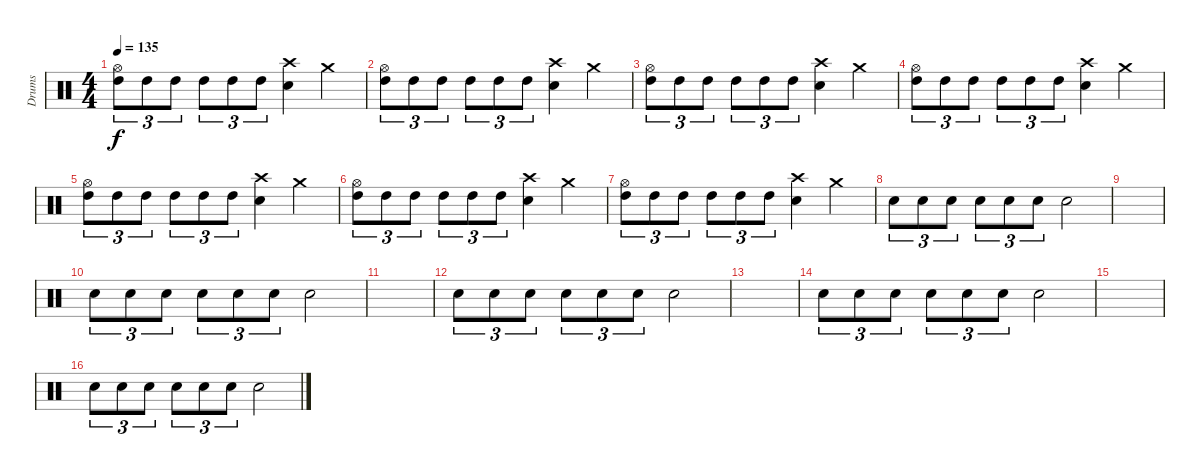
\track ("Drums" "Drums") {instrument percussion}
\staff {score}
\articulation defaults
\ts (4 4)
\tempo 135
\clef neutral
\ks c
("High Tom (hit)" "Hi-Hat (open)").8{tu (3 2) dy f} "High Tom (hit)".8{tu (3 2)} "High Tom (hit)".8{tu (3 2)} "High Tom (hit)".8{tu (3 2)} "High Tom (hit)".8{tu (3 2)} "High Tom (hit)".8{tu (3 2)} ("Snare (hit) 2" "Crash high (hit)").4 "Crash medium (hit)".4 |
("High Tom (hit)" "Hi-Hat (open)").8{tu (3 2)} "High Tom (hit)".8{tu (3 2)} "High Tom (hit)".8{tu (3 2)} "High Tom (hit)".8{tu (3 2)} "High Tom (hit)".8{tu (3 2)} "High Tom (hit)".8{tu (3 2)} ("Snare (hit) 2" "Crash high (hit)").4 "Crash medium (hit)".4 |
("High Tom (hit)" "Hi-Hat (open)").8{tu (3 2)} "High Tom (hit)".8{tu (3 2)} "High Tom (hit)".8{tu (3 2)} "High Tom (hit)".8{tu (3 2)} "High Tom (hit)".8{tu (3 2)} "High Tom (hit)".8{tu (3 2)} ("Snare (hit) 2" "Crash high (hit)").4 "Crash medium (hit)".4 |
("High Tom (hit)" "Hi-Hat (open)").8{tu (3 2)} "High Tom (hit)".8{tu (3 2)} "High Tom (hit)".8{tu (3 2)} "High Tom (hit)".8{tu (3 2)} "High Tom (hit)".8{tu (3 2)} "High Tom (hit)".8{tu (3 2)} ("Snare (hit) 2" "Crash high (hit)").4 "Crash medium (hit)".4 |
("High Tom (hit)" "Hi-Hat (open)").8{tu (3 2)} "High Tom (hit)".8{tu (3 2)} "High Tom (hit)".8{tu (3 2)} "High Tom (hit)".8{tu (3 2)} "High Tom (hit)".8{tu (3 2)} "High Tom (hit)".8{tu (3 2)} ("Snare (hit) 2" "Crash high (hit)").4 "Crash medium (hit)".4 |
("High Tom (hit)" "Hi-Hat (open)").8{tu (3 2)} "High Tom (hit)".8{tu (3 2)} "High Tom (hit)".8{tu (3 2)} "High Tom (hit)".8{tu (3 2)} "High Tom (hit)".8{tu (3 2)} "High Tom (hit)".8{tu (3 2)} ("Snare (hit) 2" "Crash high (hit)").4 "Crash medium (hit)".4 |
("High Tom (hit)" "Hi-Hat (open)").8{tu (3 2)} "High Tom (hit)".8{tu (3 2)} "High Tom (hit)".8{tu (3 2)} "High Tom (hit)".8{tu (3 2)} "High Tom (hit)".8{tu (3 2)} "High Tom (hit)".8{tu (3 2)} ("Snare (hit) 2" "Crash high (hit)").4 "Crash medium (hit)".4 |
"Snare (hit) 2".8{tu (3 2)} "Snare (hit) 2".8{tu (3 2)} "Snare (hit) 2".8{tu (3 2)} "Snare (hit) 2".8{tu (3 2)} "Snare (hit) 2".8{tu (3 2)} "Snare (hit) 2".8{tu (3 2)} "Snare (hit) 2".2 |
|
"Snare (hit) 2".8{tu (3 2)} "Snare (hit) 2".8{tu (3 2)} "Snare (hit) 2".8{tu (3 2)} "Snare (hit) 2".8{tu (3 2)} "Snare (hit) 2".8{tu (3 2)} "Snare (hit) 2".8{tu (3 2)} "Snare (hit) 2".2 |
|
"Snare (hit) 2".8{tu (3 2)} "Snare (hit) 2".8{tu (3 2)} "Snare (hit) 2".8{tu (3 2)} "Snare (hit) 2".8{tu (3 2)} "Snare (hit) 2".8{tu (3 2)} "Snare (hit) 2".8{tu (3 2)} "Snare (hit) 2".2 |
|
"Snare (hit) 2".8{tu (3 2)} "Snare (hit) 2".8{tu (3 2)} "Snare (hit) 2".8{tu (3 2)} "Snare (hit) 2".8{tu (3 2)} "Snare (hit) 2".8{tu (3 2)} "Snare (hit) 2".8{tu (3 2)} "Snare (hit) 2".2 |
|
"Snare (hit) 2".8{tu (3 2)} "Snare (hit) 2".8{tu (3 2)} "Snare (hit) 2".8{tu (3 2)} "Snare (hit) 2".8{tu (3 2)} "Snare (hit) 2".8{tu (3 2)} "Snare (hit) 2".8{tu (3 2)} "Snare (hit) 2".2
